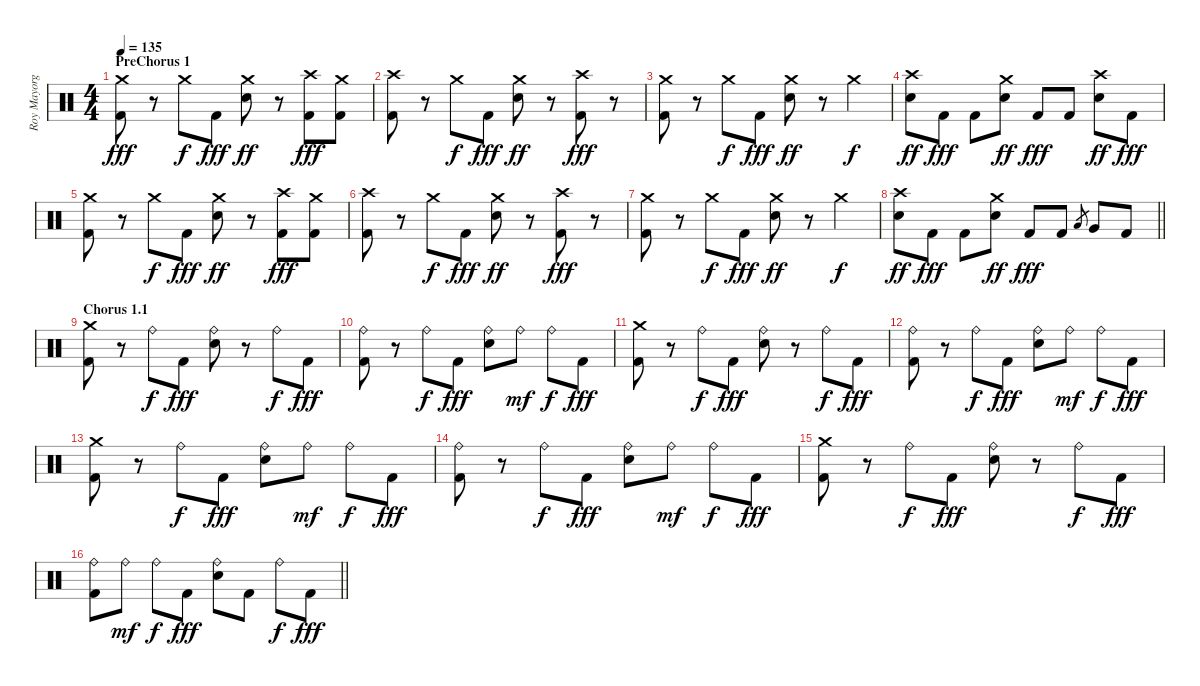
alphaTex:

\track ("Roy Mayorga" "Roy Mayorg") {instrument percussion}
\staff {score}
\articulation defaults
\ts (4 4)
\section ("" "PreChorus 1")
\tempo 135
\clef neutral
\ks c
("Crash medium (hit)" "Kick (hit) 2").8{dy fff} r.8 "Crash medium (hit)".8{dy f} "Kick (hit) 2".8{dy fff} ("Crash medium (hit)" "Electric Snare (hit)").8{dy ff} r.8 ("Crash high (hit)" "Kick (hit) 2").8{dy fff} ("Crash medium (hit)" "Kick (hit) 2").8 |
("Crash high (hit)" "Kick (hit) 2").8 r.8 "Crash medium (hit)".8{dy f} "Kick (hit) 2".8{dy fff} ("Crash medium (hit)" "Electric Snare (hit)").8{dy ff} r.8 ("Crash high (hit)" "Kick (hit) 2").8{dy fff} r.8 |
("Crash medium (hit)" "Kick (hit) 2").8 r.8 "Crash medium (hit)".8{dy f} "Kick (hit) 2".8{dy fff} ("Crash medium (hit)" "Electric Snare (hit)").8{dy ff} r.8 "Crash medium (hit)".4{dy f} |
("Crash high (hit)" "Electric Snare (hit)").8{dy ff} "Kick (hit) 2".8{dy fff} "Kick (hit) 2".8 ("Crash medium (hit)" "Electric Snare (hit)").8{dy ff} "Kick (hit) 2".8{dy fff} "Kick (hit) 2".8 ("Crash high (hit)" "Electric Snare (hit)").8{dy ff} "Kick (hit) 2".8{dy fff} |
("Crash medium (hit)" "Kick (hit) 2").8 r.8 "Crash medium (hit)".8{dy f} "Kick (hit) 2".8{dy fff} ("Crash medium (hit)" "Electric Snare (hit)").8{dy ff} r.8 ("Crash high (hit)" "Kick (hit) 2").8{dy fff} ("Crash medium (hit)" "Kick (hit) 2").8 |
("Crash high (hit)" "Kick (hit) 2").8 r.8 "Crash medium (hit)".8{dy f} "Kick (hit) 2".8{dy fff} ("Crash medium (hit)" "Electric Snare (hit)").8{dy ff} r.8 ("Crash high (hit)" "Kick (hit) 2").8{dy fff} r.8 |
("Crash medium (hit)" "Kick (hit) 2").8 r.8 "Crash medium (hit)".8{dy f} "Kick (hit) 2".8{dy fff} ("Crash medium (hit)" "Electric Snare (hit)").8{dy ff} r.8 "Crash medium (hit)".4{dy f} |
\barLineRight lightlight
("Crash high (hit)" "Electric Snare (hit)").8{dy ff} "Kick (hit) 2".8{dy fff} "Kick (hit) 2".8 ("Crash medium (hit)" "Electric Snare (hit)").8{dy ff} "Kick (hit) 2".8{dy fff} "Kick (hit) 2".8 "Low Floor Tom (hit)".8{gr} "Very Low Tom (hit)".8 "Kick (hit) 2".8 |
\section ("" "Chorus 1.1")
("Crash medium (hit)" "Kick (hit) 2").8 r.8 "Ride (bell)".8{dy f} "Kick (hit) 2".8{dy fff} ("Ride (bell)" "Electric Snare (hit)").8 r.8 "Ride (bell)".8{dy f} "Kick (hit) 2".8{dy fff} |
("Ride (bell)" "Kick (hit) 2").8 r.8 "Ride (bell)".8{dy f} "Kick (hit) 2".8{dy fff} ("Ride (bell)" "Electric Snare (hit)").8 "Ride (bell)".8{dy mf} "Ride (bell)".8{dy f} "Kick (hit) 2".8{dy fff} |
("Crash medium (hit)" "Kick (hit) 2").8 r.8 "Ride (bell)".8{dy f} "Kick (hit) 2".8{dy fff} ("Ride (bell)" "Electric Snare (hit)").8 r.8 "Ride (bell)".8{dy f} "Kick (hit) 2".8{dy fff} |
("Ride (bell)" "Kick (hit) 2").8 r.8 "Ride (bell)".8{dy f} "Kick (hit) 2".8{dy fff} ("Ride (bell)" "Electric Snare (hit)").8 "Ride (bell)".8{dy mf} "Ride (bell)".8{dy f} "Kick (hit) 2".8{dy fff} |
("Crash medium (hit)" "Kick (hit) 2").8 r.8 "Ride (bell)".8{dy f} "Kick (hit) 2".8{dy fff} ("Ride (bell)" "Electric Snare (hit)").8 "Ride (bell)".8{dy mf} "Ride (bell)".8{dy f} "Kick (hit) 2".8{dy fff} |
("Ride (bell)" "Kick (hit) 2").8 r.8 "Ride (bell)".8{dy f} "Kick (hit) 2".8{dy fff} ("Ride (bell)" "Electric Snare (hit)").8 "Ride (bell)".8{dy mf} "Ride (bell)".8{dy f} "Kick (hit) 2".8{dy fff} |
("Crash medium (hit)" "Kick (hit) 2").8 r.8 "Ride (bell)".8{dy f} "Kick (hit) 2".8{dy fff} ("Ride (bell)" "Electric Snare (hit)").8 r.8 "Ride (bell)".8{dy f} "Kick (hit) 2".8{dy fff} |
\barLineRight lightlight
("Ride (bell)" "Kick (hit) 2").8 "Ride (bell)".8{dy mf} "Ride (bell)".8{dy f} "Kick (hit) 2".8{dy fff} ("Ride (bell)" "Electric Snare (hit)").8 "Kick (hit) 2".8 "Ride (bell)".8{dy f} "Kick (hit) 2".8{dy fff}
